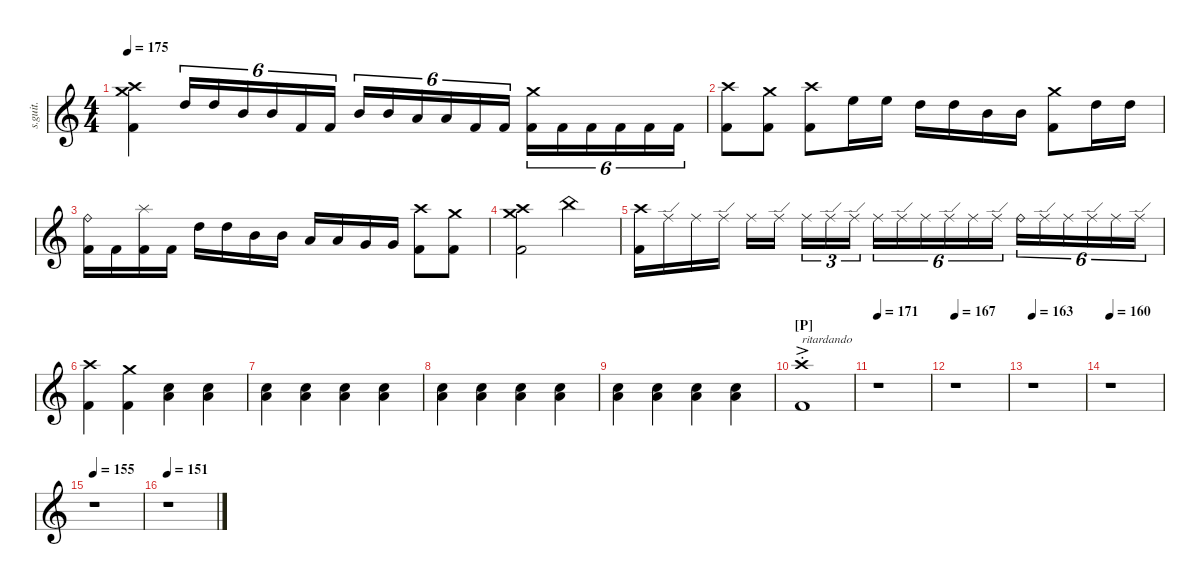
\defaultSystemsLayout 4
\hideDynamics
\bracketExtendMode nobrackets
\track ("" "s.guit.") {instrument percussion}
\staff {score}
\articulation defaults
\ts (4 4)
\tempo 175
\clef g2
\ks c
("Crash medium (hit)" "Crash high (hit)" "Kick (hit) 2").4{dy ff} "High Tom (hit)".16{tu (6 4)} "High Tom (hit)".16{tu (6 4)} "Mid Tom (hit)".16{tu (6 4)} "Mid Tom (hit)".16{tu (6 4)} "Kick (hit) 2".16{tu (6 4)} "Kick (hit) 2".16{tu (6 4)} "Mid Tom (hit)".16{tu (6 4)} "Mid Tom (hit)".16{tu (6 4)} "Low Tom (hit)".16{tu (6 4)} "Low Tom (hit)".16{tu (6 4)} "Kick (hit) 2".16{tu (6 4)} "Kick (hit) 2".16{tu (6 4)} ("Crash medium (hit)" "Kick (hit) 2").16{tu (6 4)} "Kick (hit) 2".16{tu (6 4)} "Kick (hit) 2".16{tu (6 4)} "Kick (hit) 2".16{tu (6 4)} "Kick (hit) 2".16{tu (6 4)} "Kick (hit) 2".16{tu (6 4)} |
("Crash high (hit)" "Kick (hit) 2").8 ("Crash medium (hit)" "Kick (hit) 2").8 ("Crash high (hit)" "Kick (hit) 2").8 "High Floor Tom (hit)".16 "High Floor Tom (hit)".16 "High Tom (hit)".16 "High Tom (hit)".16 "Mid Tom (hit)".16 "Mid Tom (hit)".16 ("Crash medium (hit)" "Kick (hit) 2").8 "High Tom (hit)".16 "High Tom (hit)".16 |
("Ride (bell)" "Kick (hit) 2").16 "Kick (hit) 2".16 ("Splash (hit)" "Kick (hit) 2").16 "Kick (hit) 2".16 "High Tom (hit)".16 "High Tom (hit)".16 "Mid Tom (hit)".16 "Mid Tom (hit)".16 "Low Tom (hit)".16 "Low Tom (hit)".16 "Very Low Tom (hit)".16 "Very Low Tom (hit)".16 ("Crash high (hit)" "Kick (hit) 2").8 ("Crash medium (hit)" "Kick (hit) 2").8 |
("Crash medium (hit)" "Crash high (hit)" "Kick (hit) 2").2 "China (hit)".2 |
("Crash high (hit)" "Kick (hit) 2").16 "Ride (edge)".16 "Ride (middle)".16 "Ride (edge)".16 "Ride (middle)".16 "Ride (edge)".16 "Ride (middle)".16{tu (3 2)} "Ride (edge)".16{tu (3 2)} "Ride (edge)".16{tu (3 2)} "Ride (middle)".16{tu (6 4)} "Ride (edge)".16{tu (6 4)} "Ride (middle)".16{tu (6 4)} "Ride (edge)".16{tu (6 4)} "Ride (middle)".16{tu (6 4)} "Ride (edge)".16{tu (6 4)} "Ride (bell)".16{tu (6 4)} "Ride (edge)".16{tu (6 4)} "Ride (middle)".16{tu (6 4)} "Ride (edge)".16{tu (6 4)} "Ride (middle)".16{tu (6 4)} "Ride (edge)".16{tu (6 4)} |
("Crash high (hit)" "Kick (hit) 2").4 ("Crash medium (hit)" "Kick (hit) 2").4 ("Snare (hit) 2" "Low Tom (hit)").4 ("Snare (hit) 2" "Low Tom (hit)").4 |
("Snare (hit) 2" "Low Tom (hit)").4 ("Snare (hit) 2" "Low Tom (hit)").4 ("Snare (hit) 2" "Low Tom (hit)").4 ("Snare (hit) 2" "Low Tom (hit)").4 |
("Snare (hit) 2" "Low Tom (hit)").4 ("Snare (hit) 2" "Low Tom (hit)").4 ("Snare (hit) 2" "Low Tom (hit)").4 ("Snare (hit) 2" "Low Tom (hit)").4 |
("Snare (hit) 2" "Low Tom (hit)").4 ("Snare (hit) 2" "Low Tom (hit)").4 ("Snare (hit) 2" "Low Tom (hit)").4 ("Snare (hit) 2" "Low Tom (hit)").4 |
\section ("P" "")
("Crash high (hit)"{ac st} "Kick (hit) 2").1{txt "ritardando"} |
\tempo 171
r.1 |
\tempo 167
r.1 |
\tempo 163
r.1 |
\tempo 160
r.1 |
\tempo 155
r.1 |
\tempo 151
r.1
